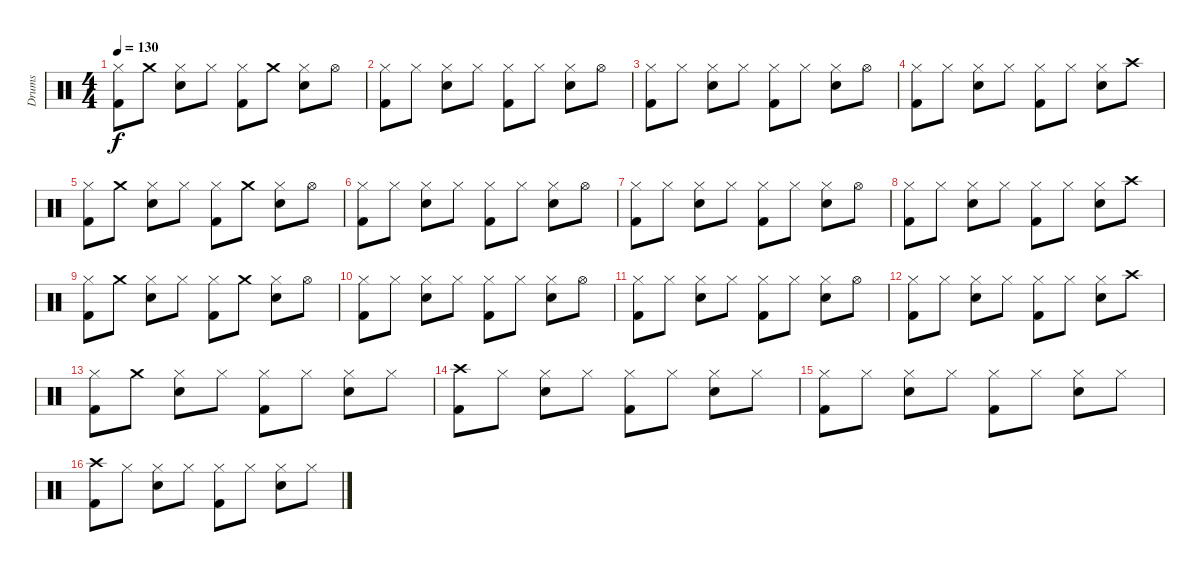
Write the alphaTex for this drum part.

\track ("Drums" "Drums") {instrument percussion}
\staff {score}
\articulation defaults
\ts (4 4)
\tempo 130
\clef neutral
\ks c
("Hi-Hat (closed)" "Kick (hit) 2").8{dy f} "Crash medium (hit)".8 ("Hi-Hat (closed)" "Electric Snare (hit)").8 "Hi-Hat (closed)".8 ("Hi-Hat (closed)" "Kick (hit) 2").8 "Crash medium (hit)".8 ("Hi-Hat (closed)" "Electric Snare (hit)").8 "Hi-Hat (open)".8 |
("Hi-Hat (closed)" "Kick (hit) 2").8 "Hi-Hat (closed)".8 ("Hi-Hat (closed)" "Electric Snare (hit)").8 "Hi-Hat (closed)".8 ("Hi-Hat (closed)" "Kick (hit) 2").8 "Hi-Hat (closed)".8 ("Hi-Hat (closed)" "Electric Snare (hit)").8 "Hi-Hat (open)".8 |
("Hi-Hat (closed)" "Kick (hit) 2").8 "Hi-Hat (closed)".8 ("Hi-Hat (closed)" "Electric Snare (hit)").8 "Hi-Hat (closed)".8 ("Hi-Hat (closed)" "Kick (hit) 2").8 "Hi-Hat (closed)".8 ("Hi-Hat (closed)" "Electric Snare (hit)").8 "Hi-Hat (open)".8 |
("Hi-Hat (closed)" "Kick (hit) 2").8 "Hi-Hat (closed)".8 ("Hi-Hat (closed)" "Electric Snare (hit)").8 "Hi-Hat (closed)".8 ("Hi-Hat (closed)" "Kick (hit) 2").8 "Hi-Hat (closed)".8 ("Hi-Hat (closed)" "Electric Snare (hit)").8 "Crash high (hit)".8 |
("Hi-Hat (closed)" "Kick (hit) 2").8 "Crash medium (hit)".8 ("Hi-Hat (closed)" "Electric Snare (hit)").8 "Hi-Hat (closed)".8 ("Hi-Hat (closed)" "Kick (hit) 2").8 "Crash medium (hit)".8 ("Hi-Hat (closed)" "Electric Snare (hit)").8 "Hi-Hat (open)".8 |
("Hi-Hat (closed)" "Kick (hit) 2").8 "Hi-Hat (closed)".8 ("Hi-Hat (closed)" "Electric Snare (hit)").8 "Hi-Hat (closed)".8 ("Hi-Hat (closed)" "Kick (hit) 2").8 "Hi-Hat (closed)".8 ("Hi-Hat (closed)" "Electric Snare (hit)").8 "Hi-Hat (open)".8 |
("Hi-Hat (closed)" "Kick (hit) 2").8 "Hi-Hat (closed)".8 ("Hi-Hat (closed)" "Electric Snare (hit)").8 "Hi-Hat (closed)".8 ("Hi-Hat (closed)" "Kick (hit) 2").8 "Hi-Hat (closed)".8 ("Hi-Hat (closed)" "Electric Snare (hit)").8 "Hi-Hat (open)".8 |
("Hi-Hat (closed)" "Kick (hit) 2").8 "Hi-Hat (closed)".8 ("Hi-Hat (closed)" "Electric Snare (hit)").8 "Hi-Hat (closed)".8 ("Hi-Hat (closed)" "Kick (hit) 2").8 "Hi-Hat (closed)".8 ("Hi-Hat (closed)" "Electric Snare (hit)").8 "Crash high (hit)".8 |
("Hi-Hat (closed)" "Kick (hit) 2").8 "Crash medium (hit)".8 ("Hi-Hat (closed)" "Electric Snare (hit)").8 "Hi-Hat (closed)".8 ("Hi-Hat (closed)" "Kick (hit) 2").8 "Crash medium (hit)".8 ("Hi-Hat (closed)" "Electric Snare (hit)").8 "Hi-Hat (open)".8 |
("Hi-Hat (closed)" "Kick (hit) 2").8 "Hi-Hat (closed)".8 ("Hi-Hat (closed)" "Electric Snare (hit)").8 "Hi-Hat (closed)".8 ("Hi-Hat (closed)" "Kick (hit) 2").8 "Hi-Hat (closed)".8 ("Hi-Hat (closed)" "Electric Snare (hit)").8 "Hi-Hat (open)".8 |
("Hi-Hat (closed)" "Kick (hit) 2").8 "Hi-Hat (closed)".8 ("Hi-Hat (closed)" "Electric Snare (hit)").8 "Hi-Hat (closed)".8 ("Hi-Hat (closed)" "Kick (hit) 2").8 "Hi-Hat (closed)".8 ("Hi-Hat (closed)" "Electric Snare (hit)").8 "Hi-Hat (open)".8 |
("Hi-Hat (closed)" "Kick (hit) 2").8 "Hi-Hat (closed)".8 ("Hi-Hat (closed)" "Electric Snare (hit)").8 "Hi-Hat (closed)".8 ("Hi-Hat (closed)" "Kick (hit) 2").8 "Hi-Hat (closed)".8 ("Hi-Hat (closed)" "Electric Snare (hit)").8 "Crash high (hit)".8 |
("Hi-Hat (closed)" "Kick (hit) 2").8 "Crash medium (hit)".8 ("Hi-Hat (closed)" "Electric Snare (hit)").8 "Hi-Hat (closed)".8 ("Hi-Hat (closed)" "Kick (hit) 2").8 "Hi-Hat (closed)".8 ("Hi-Hat (closed)" "Electric Snare (hit)").8 "Hi-Hat (closed)".8 |
("Crash high (hit)" "Kick (hit) 2").8 "Hi-Hat (closed)".8 ("Hi-Hat (closed)" "Electric Snare (hit)").8 "Hi-Hat (closed)".8 ("Hi-Hat (closed)" "Kick (hit) 2").8 "Hi-Hat (closed)".8 ("Hi-Hat (closed)" "Electric Snare (hit)").8 "Hi-Hat (closed)".8 |
("Hi-Hat (closed)" "Kick (hit) 2").8 "Hi-Hat (closed)".8 ("Hi-Hat (closed)" "Electric Snare (hit)").8 "Hi-Hat (closed)".8 ("Hi-Hat (closed)" "Kick (hit) 2").8 "Hi-Hat (closed)".8 ("Hi-Hat (closed)" "Electric Snare (hit)").8 "Hi-Hat (closed)".8 |
("Crash high (hit)" "Kick (hit) 2").8 "Hi-Hat (closed)".8 ("Hi-Hat (closed)" "Electric Snare (hit)").8 "Hi-Hat (closed)".8 ("Hi-Hat (closed)" "Kick (hit) 2").8 "Hi-Hat (closed)".8 ("Hi-Hat (closed)" "Electric Snare (hit)").8 "Hi-Hat (closed)".8
